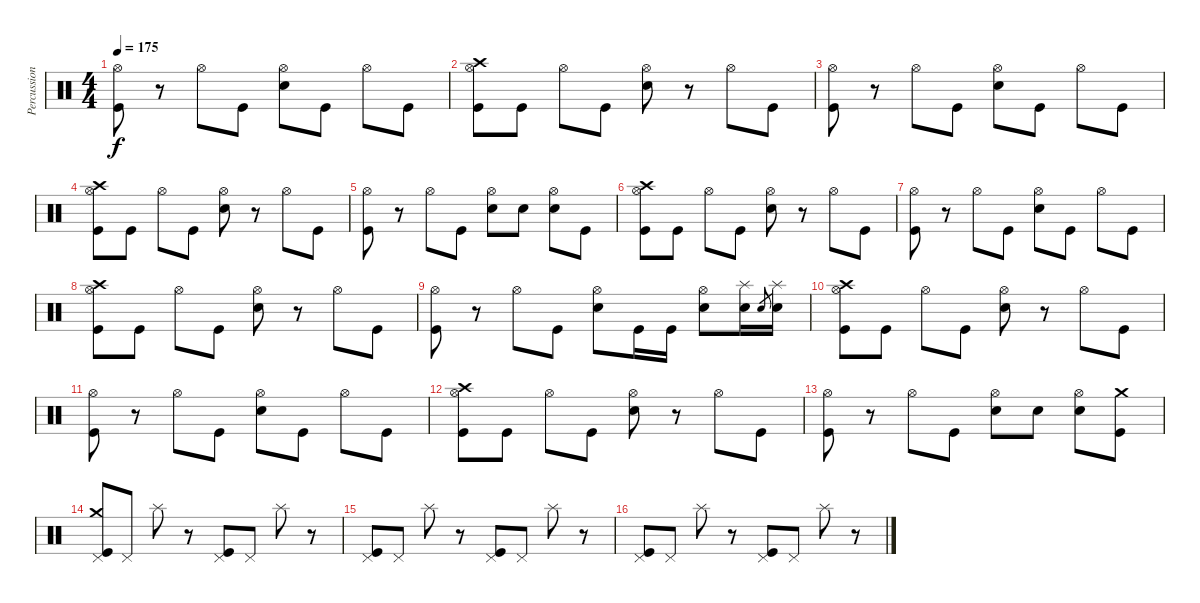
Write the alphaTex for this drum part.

\track ("Percussions" "Percussion") {instrument percussion}
\staff {score}
\articulation defaults
\ts (4 4)
\tempo 175
\clef neutral
\ks c
("Hi-Hat (open)" "Kick (hit)").8{dy f} r.8 "Hi-Hat (open)".8 "Kick (hit)".8 ("Hi-Hat (open)" "Snare (hit) 2").8 "Kick (hit)".8 "Hi-Hat (open)".8 "Kick (hit)".8 |
("Hi-Hat (open)" "Crash high (hit)" "Kick (hit)").8 "Kick (hit)".8 "Hi-Hat (open)".8 "Kick (hit)".8 ("Hi-Hat (open)" "Snare (hit) 2").8 r.8 "Hi-Hat (open)".8 "Kick (hit)".8 |
("Hi-Hat (open)" "Kick (hit)").8 r.8 "Hi-Hat (open)".8 "Kick (hit)".8 ("Hi-Hat (open)" "Snare (hit) 2").8 "Kick (hit)".8 "Hi-Hat (open)".8 "Kick (hit)".8 |
("Hi-Hat (open)" "Crash high (hit)" "Kick (hit)").8 "Kick (hit)".8 "Hi-Hat (open)".8 "Kick (hit)".8 ("Hi-Hat (open)" "Snare (hit) 2").8 r.8 "Hi-Hat (open)".8 "Kick (hit)".8 |
("Hi-Hat (open)" "Kick (hit)").8 r.8 "Hi-Hat (open)".8 "Kick (hit)".8 ("Hi-Hat (open)" "Snare (hit) 2").8 "Snare (hit) 2".8 ("Hi-Hat (open)" "Snare (hit) 2").8 "Kick (hit)".8 |
("Hi-Hat (open)" "Crash high (hit)" "Kick (hit)").8 "Kick (hit)".8 "Hi-Hat (open)".8 "Kick (hit)".8 ("Hi-Hat (open)" "Snare (hit) 2").8 r.8 "Hi-Hat (open)".8 "Kick (hit)".8 |
("Hi-Hat (open)" "Kick (hit)").8 r.8 "Hi-Hat (open)".8 "Kick (hit)".8 ("Hi-Hat (open)" "Snare (hit) 2").8 "Kick (hit)".8 "Hi-Hat (open)".8 "Kick (hit)".8 |
("Hi-Hat (open)" "Crash high (hit)" "Kick (hit)").8 "Kick (hit)".8 "Hi-Hat (open)".8 "Kick (hit)".8 ("Hi-Hat (open)" "Snare (hit) 2").8 r.8 "Hi-Hat (open)".8 "Kick (hit)".8 |
("Hi-Hat (open)" "Kick (hit)").8 r.8 "Hi-Hat (open)".8 "Kick (hit)".8 ("Hi-Hat (open)" "Snare (hit) 2").8 "Kick (hit)".16 "Kick (hit)".16 ("Hi-Hat (open)" "Snare (hit) 2").8 ("Splash (hit)" "Snare (hit) 2").16 "Snare (hit) 2".8{gr} ("Splash (hit)" "Snare (hit) 2").16 |
("Hi-Hat (open)" "Crash high (hit)" "Kick (hit)").8 "Kick (hit)".8 "Hi-Hat (open)".8 "Kick (hit)".8 ("Hi-Hat (open)" "Snare (hit) 2").8 r.8 "Hi-Hat (open)".8 "Kick (hit)".8 |
("Hi-Hat (open)" "Kick (hit)").8 r.8 "Hi-Hat (open)".8 "Kick (hit)".8 ("Hi-Hat (open)" "Snare (hit) 2").8 "Kick (hit)".8 "Hi-Hat (open)".8 "Kick (hit)".8 |
("Hi-Hat (open)" "Crash high (hit)" "Kick (hit)").8 "Kick (hit)".8 "Hi-Hat (open)".8 "Kick (hit)".8 ("Hi-Hat (open)" "Snare (hit) 2").8 r.8 "Hi-Hat (open)".8 "Kick (hit)".8 |
("Hi-Hat (open)" "Kick (hit)").8 r.8 "Hi-Hat (open)".8 "Kick (hit)".8 ("Hi-Hat (open)" "Snare (hit) 2").8 "Snare (hit) 2".8 ("Hi-Hat (open)" "Snare (hit) 2").8 ("Crash medium (hit)" "Kick (hit)").8 |
("Pedal Hi-Hat (hit)" "Crash medium (hit)" "Kick (hit)").8 "Pedal Hi-Hat (hit)".8 "Splash (hit)".8 r.8 ("Pedal Hi-Hat (hit)" "Kick (hit)").8 "Pedal Hi-Hat (hit)".8 "Splash (hit)".8 r.8 |
("Pedal Hi-Hat (hit)" "Kick (hit)").8 "Pedal Hi-Hat (hit)".8 "Splash (hit)".8 r.8 ("Pedal Hi-Hat (hit)" "Kick (hit)").8 "Pedal Hi-Hat (hit)".8 "Splash (hit)".8 r.8 |
("Pedal Hi-Hat (hit)" "Kick (hit)").8 "Pedal Hi-Hat (hit)".8 "Splash (hit)".8 r.8 ("Pedal Hi-Hat (hit)" "Kick (hit)").8 "Pedal Hi-Hat (hit)".8 "Splash (hit)".8 r.8
